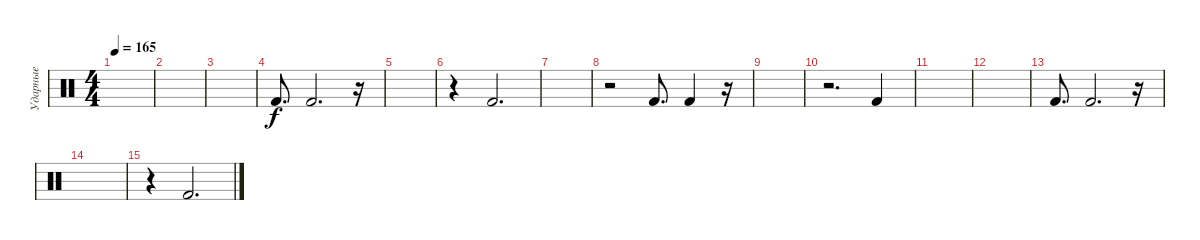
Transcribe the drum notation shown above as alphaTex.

\track ("Ударные" "Ударные") {instrument percussion}
\staff {score}
\articulation defaults
\ts (4 4)
\tempo 165
\clef neutral
\ks c
|
|
|
"Kick (hit) 2".8{d} "Kick (hit) 2".2{d} r.16 |
|
r.4 "Kick (hit) 2".2{d} |
|
r.2 "Kick (hit) 2".8{d} "Kick (hit) 2".4 r.16 |
|
r.2{d} "Kick (hit) 2".4 |
|
|
"Kick (hit) 2".8{d} "Kick (hit) 2".2{d} r.16 |
|
r.4 "Kick (hit) 2".2{d}
